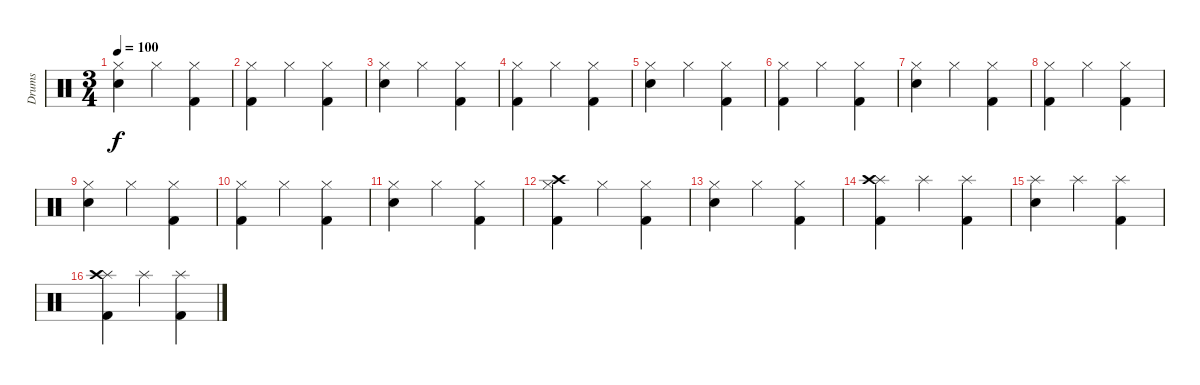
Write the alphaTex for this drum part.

\track ("Drums" "Drums") {instrument percussion}
\staff {score}
\articulation defaults
\ts (3 4)
\tempo 100
\clef neutral
\ks c
("Hi-Hat (closed)" "Electric Snare (hit)").4{dy f} "Hi-Hat (closed)".4 ("Hi-Hat (closed)" "Kick (hit) 2").4 |
("Hi-Hat (closed)" "Kick (hit) 2").4 "Hi-Hat (closed)".4 ("Hi-Hat (closed)" "Kick (hit) 2").4 |
("Hi-Hat (closed)" "Electric Snare (hit)").4 "Hi-Hat (closed)".4 ("Hi-Hat (closed)" "Kick (hit) 2").4 |
("Hi-Hat (closed)" "Kick (hit) 2").4 "Hi-Hat (closed)".4 ("Hi-Hat (closed)" "Kick (hit) 2").4 |
("Hi-Hat (closed)" "Electric Snare (hit)").4 "Hi-Hat (closed)".4 ("Hi-Hat (closed)" "Kick (hit) 2").4 |
("Hi-Hat (closed)" "Kick (hit) 2").4 "Hi-Hat (closed)".4 ("Hi-Hat (closed)" "Kick (hit) 2").4 |
("Hi-Hat (closed)" "Electric Snare (hit)").4 "Hi-Hat (closed)".4 ("Hi-Hat (closed)" "Kick (hit) 2").4 |
("Hi-Hat (closed)" "Kick (hit) 2").4 "Hi-Hat (closed)".4 ("Hi-Hat (closed)" "Kick (hit) 2").4 |
("Hi-Hat (closed)" "Electric Snare (hit)").4 "Hi-Hat (closed)".4 ("Hi-Hat (closed)" "Kick (hit) 2").4 |
("Hi-Hat (closed)" "Kick (hit) 2").4 "Hi-Hat (closed)".4 ("Hi-Hat (closed)" "Kick (hit) 2").4 |
("Hi-Hat (closed)" "Electric Snare (hit)").4 "Hi-Hat (closed)".4 ("Hi-Hat (closed)" "Kick (hit) 2").4 |
("Hi-Hat (closed)" "Crash high (hit)" "Kick (hit) 2").4 "Hi-Hat (closed)".4 ("Hi-Hat (closed)" "Kick (hit) 2").4 |
("Hi-Hat (closed)" "Electric Snare (hit)").4 "Hi-Hat (closed)".4 ("Hi-Hat (closed)" "Kick (hit) 2").4 |
("Splash (hit)" "Crash high (hit)" "Kick (hit) 2").4 "Splash (hit)".4 ("Splash (hit)" "Kick (hit) 2").4 |
("Splash (hit)" "Electric Snare (hit)").4 "Splash (hit)".4 ("Splash (hit)" "Kick (hit) 2").4 |
("Splash (hit)" "Crash high (hit)" "Kick (hit) 2").4 "Splash (hit)".4 ("Splash (hit)" "Kick (hit) 2").4
